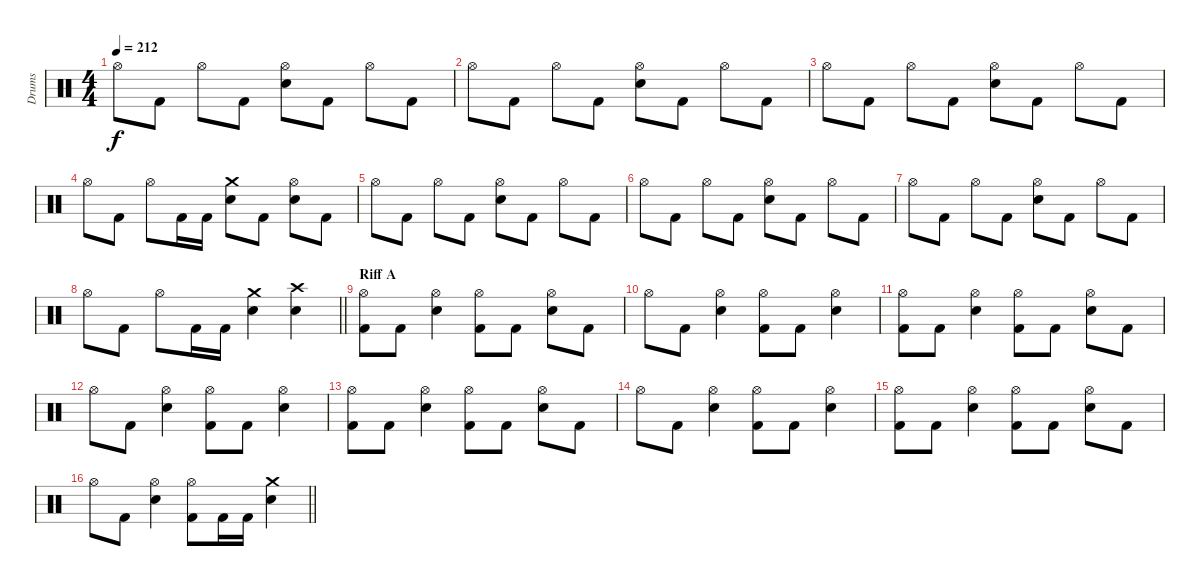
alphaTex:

\track ("Drums" "Drums") {instrument percussion}
\staff {score}
\articulation defaults
\ts (4 4)
\tempo 212
\clef neutral
\ks c "Hi-Hat (open)".8{dy f} "Kick (hit) 2".8 "Hi-Hat (open)".8 "Kick (hit) 2".8
("Hi-Hat (open)" "Electric Snare (hit)").8 "Kick (hit) 2".8 "Hi-Hat (open)".8 "Kick (hit) 2".8 |
"Hi-Hat (open)".8 "Kick (hit) 2".8 "Hi-Hat (open)".8 "Kick (hit) 2".8 ("Hi-Hat (open)" "Electric Snare (hit)").8 "Kick (hit) 2".8 "Hi-Hat (open)".8 "Kick (hit) 2".8 |
"Hi-Hat (open)".8 "Kick (hit) 2".8 "Hi-Hat (open)".8 "Kick (hit) 2".8 ("Hi-Hat (open)" "Electric Snare (hit)").8 "Kick (hit) 2".8 "Hi-Hat (open)".8 "Kick (hit) 2".8 |
"Hi-Hat (open)".8 "Kick (hit) 2".8 "Hi-Hat (open)".8 "Kick (hit) 2".16 "Kick (hit) 2".16 ("Crash medium (hit)" "Electric Snare (hit)").8 "Kick (hit) 2".8 ("Hi-Hat (open)" "Electric Snare (hit)").8 "Kick (hit) 2".8 |
"Hi-Hat (open)".8 "Kick (hit) 2".8 "Hi-Hat (open)".8 "Kick (hit) 2".8 ("Hi-Hat (open)" "Electric Snare (hit)").8 "Kick (hit) 2".8 "Hi-Hat (open)".8 "Kick (hit) 2".8 |
"Hi-Hat (open)".8 "Kick (hit) 2".8 "Hi-Hat (open)".8 "Kick (hit) 2".8 ("Hi-Hat (open)" "Electric Snare (hit)").8 "Kick (hit) 2".8 "Hi-Hat (open)".8 "Kick (hit) 2".8 |
"Hi-Hat (open)".8 "Kick (hit) 2".8 "Hi-Hat (open)".8 "Kick (hit) 2".8 ("Hi-Hat (open)" "Electric Snare (hit)").8 "Kick (hit) 2".8 "Hi-Hat (open)".8 "Kick (hit) 2".8 |
\barLineRight lightlight "Hi-Hat (open)".8 "Kick (hit) 2".8 "Hi-Hat (open)".8 "Kick (hit) 2".16 "Kick (hit) 2".16
("Crash medium (hit)" "Electric Snare (hit)").4 ("Crash high (hit)" "Electric Snare (hit)").4 |
\section ("" "Riff A")
("Hi-Hat (open)" "Kick (hit) 2").8 "Kick (hit) 2".8 ("Hi-Hat (open)" "Electric Snare (hit)").4 ("Hi-Hat (open)" "Kick (hit) 2").8 "Kick (hit) 2".8 ("Hi-Hat (open)" "Electric Snare (hit)").8 "Kick (hit) 2".8 |
"Hi-Hat (open)".8 "Kick (hit) 2".8 ("Hi-Hat (open)" "Electric Snare (hit)").4 ("Hi-Hat (open)" "Kick (hit) 2").8 "Kick (hit) 2".8 ("Hi-Hat (open)" "Electric Snare (hit)").4 |
("Hi-Hat (open)" "Kick (hit) 2").8 "Kick (hit) 2".8 ("Hi-Hat (open)" "Electric Snare (hit)").4 ("Hi-Hat (open)" "Kick (hit) 2").8 "Kick (hit) 2".8 ("Hi-Hat (open)" "Electric Snare (hit)").8 "Kick (hit) 2".8 |
"Hi-Hat (open)".8 "Kick (hit) 2".8 ("Hi-Hat (open)" "Electric Snare (hit)").4 ("Hi-Hat (open)" "Kick (hit) 2").8 "Kick (hit) 2".8 ("Hi-Hat (open)" "Electric Snare (hit)").4 |
("Hi-Hat (open)" "Kick (hit) 2").8 "Kick (hit) 2".8 ("Hi-Hat (open)" "Electric Snare (hit)").4 ("Hi-Hat (open)" "Kick (hit) 2").8 "Kick (hit) 2".8 ("Hi-Hat (open)" "Electric Snare (hit)").8 "Kick (hit) 2".8 |
"Hi-Hat (open)".8 "Kick (hit) 2".8 ("Hi-Hat (open)" "Electric Snare (hit)").4 ("Hi-Hat (open)" "Kick (hit) 2").8 "Kick (hit) 2".8 ("Hi-Hat (open)" "Electric Snare (hit)").4 |
("Hi-Hat (open)" "Kick (hit) 2").8 "Kick (hit) 2".8 ("Hi-Hat (open)" "Electric Snare (hit)").4 ("Hi-Hat (open)" "Kick (hit) 2").8 "Kick (hit) 2".8 ("Hi-Hat (open)" "Electric Snare (hit)").8 "Kick (hit) 2".8 |
\barLineRight lightlight "Hi-Hat (open)".8 "Kick (hit) 2".8
("Hi-Hat (open)" "Electric Snare (hit)").4 ("Hi-Hat (open)" "Kick (hit) 2").8 "Kick (hit) 2".16 "Kick (hit) 2".16 ("Crash medium (hit)" "Electric Snare (hit)").4
